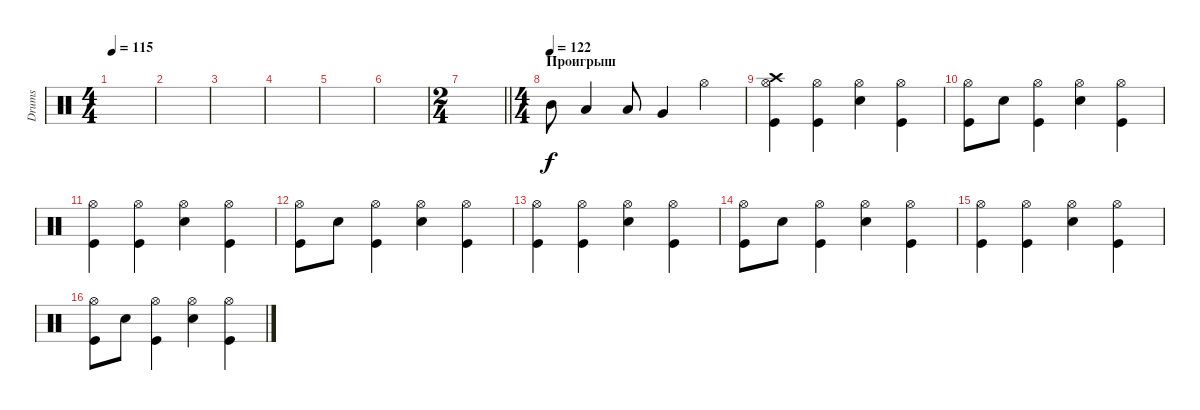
\track ("Drums" "Drums") {instrument percussion}
\staff {score}
\articulation defaults
\ts (4 4)
\tempo 115
\clef neutral
\ks c
|
|
|
|
|
|
\ts (2 4)
\barLineRight lightlight
|
\ts (4 4)
\section ("" "Проигрыш")
\tempo (122)
"Mid Tom (hit)".8 "Low Tom (hit)".4 "Low Tom (hit)".8 "Very Low Tom (hit)".4 "Hi-Hat (open)".4 |
("Kick (hit)" "Hi-Hat (open)" "Crash high (hit)").4 ("Kick (hit)" "Hi-Hat (open)").4 ("Snare (hit) 2" "Hi-Hat (open)").4 ("Kick (hit)" "Hi-Hat (open)").4 |
("Kick (hit)" "Hi-Hat (open)").8 "Snare (hit) 2".8 ("Kick (hit)" "Hi-Hat (open)").4 ("Snare (hit) 2" "Hi-Hat (open)").4 ("Kick (hit)" "Hi-Hat (open)").4 |
("Kick (hit)" "Hi-Hat (open)").4 ("Kick (hit)" "Hi-Hat (open)").4 ("Snare (hit) 2" "Hi-Hat (open)").4 ("Kick (hit)" "Hi-Hat (open)").4 |
("Kick (hit)" "Hi-Hat (open)").8 "Snare (hit) 2".8 ("Kick (hit)" "Hi-Hat (open)").4 ("Snare (hit) 2" "Hi-Hat (open)").4 ("Kick (hit)" "Hi-Hat (open)").4 |
("Kick (hit)" "Hi-Hat (open)").4 ("Kick (hit)" "Hi-Hat (open)").4 ("Snare (hit) 2" "Hi-Hat (open)").4 ("Kick (hit)" "Hi-Hat (open)").4 |
("Kick (hit)" "Hi-Hat (open)").8 "Snare (hit) 2".8 ("Kick (hit)" "Hi-Hat (open)").4 ("Snare (hit) 2" "Hi-Hat (open)").4 ("Kick (hit)" "Hi-Hat (open)").4 |
("Kick (hit)" "Hi-Hat (open)").4 ("Kick (hit)" "Hi-Hat (open)").4 ("Snare (hit) 2" "Hi-Hat (open)").4 ("Kick (hit)" "Hi-Hat (open)").4 |
("Kick (hit)" "Hi-Hat (open)").8 "Snare (hit) 2".8 ("Kick (hit)" "Hi-Hat (open)").4 ("Snare (hit) 2" "Hi-Hat (open)").4 ("Kick (hit)" "Hi-Hat (open)").4
